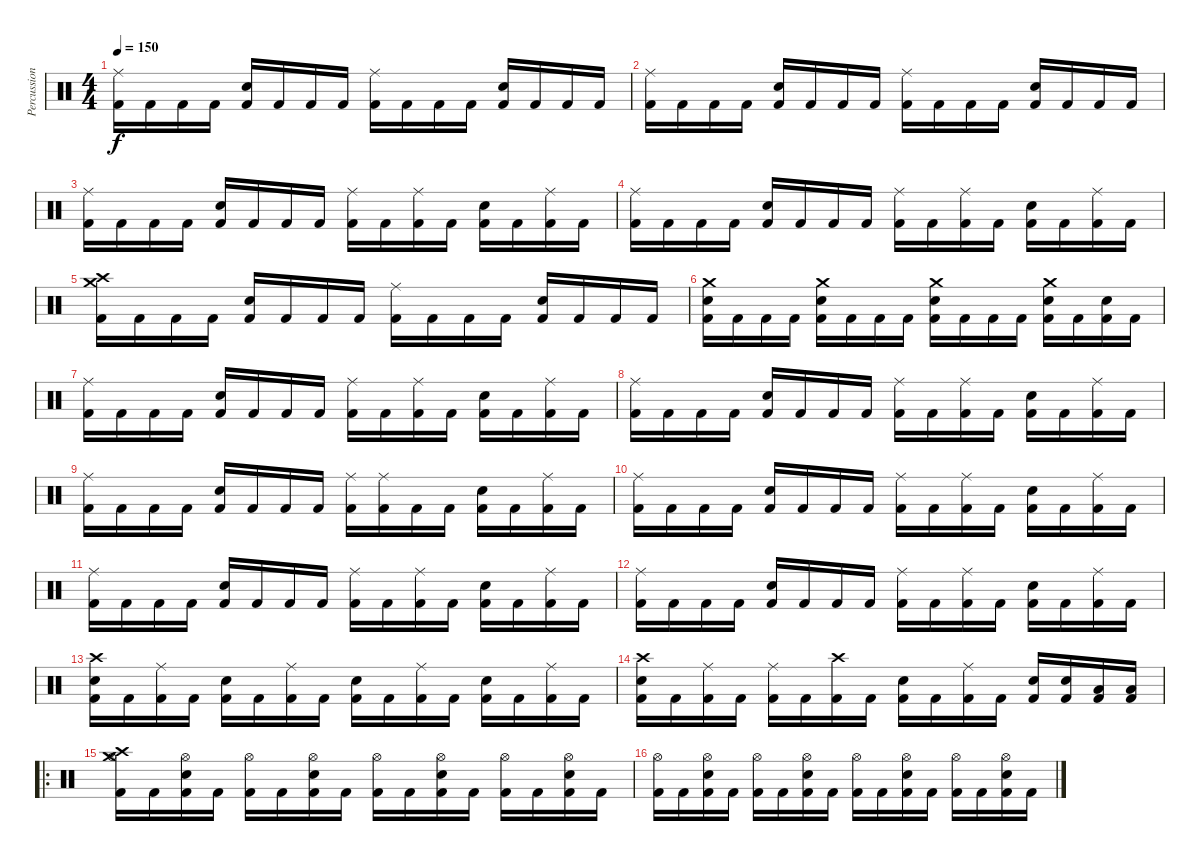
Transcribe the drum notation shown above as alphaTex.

\track ("Percussion" "Percussion") {instrument percussion}
\staff {score}
\articulation defaults
\ts (4 4)
\tempo 150
\clef neutral
\ks c
("Kick (hit) 2" "Ride (middle)").16{dy f} "Kick (hit) 2".16 "Kick (hit) 2".16 "Kick (hit) 2".16 ("Kick (hit) 2" "Electric Snare (hit)").16 "Kick (hit) 2".16 "Kick (hit) 2".16 "Kick (hit) 2".16 ("Kick (hit) 2" "Ride (middle)").16 "Kick (hit) 2".16 "Kick (hit) 2".16 "Kick (hit) 2".16 ("Kick (hit) 2" "Electric Snare (hit)").16 "Kick (hit) 2".16 "Kick (hit) 2".16 "Kick (hit) 2".16 |
("Kick (hit) 2" "Ride (middle)").16 "Kick (hit) 2".16 "Kick (hit) 2".16 "Kick (hit) 2".16 ("Kick (hit) 2" "Electric Snare (hit)").16 "Kick (hit) 2".16 "Kick (hit) 2".16 "Kick (hit) 2".16 ("Kick (hit) 2" "Ride (middle)").16 "Kick (hit) 2".16 "Kick (hit) 2".16 "Kick (hit) 2".16 ("Kick (hit) 2" "Electric Snare (hit)").16 "Kick (hit) 2".16 "Kick (hit) 2".16 "Kick (hit) 2".16 |
("Kick (hit) 2" "Ride (middle)").16 "Kick (hit) 2".16 "Kick (hit) 2".16 "Kick (hit) 2".16 ("Kick (hit) 2" "Electric Snare (hit)").16 "Kick (hit) 2".16 "Kick (hit) 2".16 "Kick (hit) 2".16 ("Kick (hit) 2" "Ride (middle)").16 "Kick (hit) 2".16 ("Kick (hit) 2" "Ride (middle)").16 "Kick (hit) 2".16 ("Kick (hit) 2" "Electric Snare (hit)").16 "Kick (hit) 2".16 ("Kick (hit) 2" "Ride (middle)").16 "Kick (hit) 2".16 |
("Kick (hit) 2" "Ride (middle)").16 "Kick (hit) 2".16 "Kick (hit) 2".16 "Kick (hit) 2".16 ("Kick (hit) 2" "Electric Snare (hit)").16 "Kick (hit) 2".16 "Kick (hit) 2".16 "Kick (hit) 2".16 ("Kick (hit) 2" "Ride (middle)").16 "Kick (hit) 2".16 ("Kick (hit) 2" "Ride (middle)").16 "Kick (hit) 2".16 ("Kick (hit) 2" "Electric Snare (hit)").16 "Kick (hit) 2".16 ("Kick (hit) 2" "Ride (middle)").16 "Kick (hit) 2".16 |
("Kick (hit) 2" "Crash high (hit)" "Crash medium (hit)").16 "Kick (hit) 2".16 "Kick (hit) 2".16 "Kick (hit) 2".16 ("Kick (hit) 2" "Electric Snare (hit)").16 "Kick (hit) 2".16 "Kick (hit) 2".16 "Kick (hit) 2".16 ("Kick (hit) 2" "Ride (middle)").16 "Kick (hit) 2".16 "Kick (hit) 2".16 "Kick (hit) 2".16 ("Kick (hit) 2" "Electric Snare (hit)").16 "Kick (hit) 2".16 "Kick (hit) 2".16 "Kick (hit) 2".16 |
("Kick (hit) 2" "Electric Snare (hit)" "Crash medium (hit)").16 "Kick (hit) 2".16 "Kick (hit) 2".16 "Kick (hit) 2".16 ("Kick (hit) 2" "Electric Snare (hit)" "Crash medium (hit)").16 "Kick (hit) 2".16 "Kick (hit) 2".16 "Kick (hit) 2".16 ("Kick (hit) 2" "Electric Snare (hit)" "Crash medium (hit)").16 "Kick (hit) 2".16 "Kick (hit) 2".16 "Kick (hit) 2".16 ("Kick (hit) 2" "Electric Snare (hit)" "Crash medium (hit)").16 "Kick (hit) 2".16 ("Kick (hit) 2" "Electric Snare (hit)").16 "Kick (hit) 2".16 |
("Kick (hit) 2" "Ride (middle)").16 "Kick (hit) 2".16 "Kick (hit) 2".16 "Kick (hit) 2".16 ("Kick (hit) 2" "Electric Snare (hit)").16 "Kick (hit) 2".16 "Kick (hit) 2".16 "Kick (hit) 2".16 ("Kick (hit) 2" "Ride (middle)").16 "Kick (hit) 2".16 ("Kick (hit) 2" "Ride (middle)").16 "Kick (hit) 2".16 ("Kick (hit) 2" "Electric Snare (hit)").16 "Kick (hit) 2".16 ("Kick (hit) 2" "Ride (middle)").16 "Kick (hit) 2".16 |
("Kick (hit) 2" "Ride (middle)").16 "Kick (hit) 2".16 "Kick (hit) 2".16 "Kick (hit) 2".16 ("Kick (hit) 2" "Electric Snare (hit)").16 "Kick (hit) 2".16 "Kick (hit) 2".16 "Kick (hit) 2".16 ("Kick (hit) 2" "Ride (middle)").16 "Kick (hit) 2".16 ("Kick (hit) 2" "Ride (middle)").16 "Kick (hit) 2".16 ("Kick (hit) 2" "Electric Snare (hit)").16 "Kick (hit) 2".16 ("Kick (hit) 2" "Ride (middle)").16 "Kick (hit) 2".16 |
("Kick (hit) 2" "Ride (middle)").16 "Kick (hit) 2".16 "Kick (hit) 2".16 "Kick (hit) 2".16 ("Kick (hit) 2" "Electric Snare (hit)").16 "Kick (hit) 2".16 "Kick (hit) 2".16 "Kick (hit) 2".16 ("Kick (hit) 2" "Ride (middle)").16 ("Kick (hit) 2" "Ride (middle)").16 "Kick (hit) 2".16 "Kick (hit) 2".16 ("Kick (hit) 2" "Electric Snare (hit)").16 "Kick (hit) 2".16 ("Kick (hit) 2" "Ride (middle)").16 "Kick (hit) 2".16 |
("Kick (hit) 2" "Ride (middle)").16 "Kick (hit) 2".16 "Kick (hit) 2".16 "Kick (hit) 2".16 ("Kick (hit) 2" "Electric Snare (hit)").16 "Kick (hit) 2".16 "Kick (hit) 2".16 "Kick (hit) 2".16 ("Kick (hit) 2" "Ride (middle)").16 "Kick (hit) 2".16 ("Kick (hit) 2" "Ride (middle)").16 "Kick (hit) 2".16 ("Kick (hit) 2" "Electric Snare (hit)").16 "Kick (hit) 2".16 ("Kick (hit) 2" "Ride (middle)").16 "Kick (hit) 2".16 |
("Kick (hit) 2" "Ride (middle)").16 "Kick (hit) 2".16 "Kick (hit) 2".16 "Kick (hit) 2".16 ("Kick (hit) 2" "Electric Snare (hit)").16 "Kick (hit) 2".16 "Kick (hit) 2".16 "Kick (hit) 2".16 ("Kick (hit) 2" "Ride (middle)").16 "Kick (hit) 2".16 ("Kick (hit) 2" "Ride (middle)").16 "Kick (hit) 2".16 ("Kick (hit) 2" "Electric Snare (hit)").16 "Kick (hit) 2".16 ("Kick (hit) 2" "Ride (middle)").16 "Kick (hit) 2".16 |
("Kick (hit) 2" "Ride (middle)").16 "Kick (hit) 2".16 "Kick (hit) 2".16 "Kick (hit) 2".16 ("Kick (hit) 2" "Electric Snare (hit)").16 "Kick (hit) 2".16 "Kick (hit) 2".16 "Kick (hit) 2".16 ("Kick (hit) 2" "Ride (middle)").16 "Kick (hit) 2".16 ("Kick (hit) 2" "Ride (middle)").16 "Kick (hit) 2".16 ("Kick (hit) 2" "Electric Snare (hit)").16 "Kick (hit) 2".16 ("Kick (hit) 2" "Ride (middle)").16 "Kick (hit) 2".16 |
("Kick (hit) 2" "Electric Snare (hit)" "Crash high (hit)").16 "Kick (hit) 2".16 ("Kick (hit) 2" "Ride (middle)").16 "Kick (hit) 2".16 ("Kick (hit) 2" "Electric Snare (hit)").16 "Kick (hit) 2".16 ("Kick (hit) 2" "Ride (middle)").16 "Kick (hit) 2".16 ("Kick (hit) 2" "Electric Snare (hit)").16 "Kick (hit) 2".16 ("Kick (hit) 2" "Ride (middle)").16 "Kick (hit) 2".16 ("Kick (hit) 2" "Electric Snare (hit)").16 "Kick (hit) 2".16 ("Kick (hit) 2" "Ride (middle)").16 "Kick (hit) 2".16 |
("Kick (hit) 2" "Electric Snare (hit)" "Crash high (hit)").16 "Kick (hit) 2".16 ("Kick (hit) 2" "Ride (middle)").16 "Kick (hit) 2".16 ("Kick (hit) 2" "Ride (middle)").16 "Kick (hit) 2".16 ("Kick (hit) 2" "Crash high (hit)").16 "Kick (hit) 2".16 ("Kick (hit) 2" "Electric Snare (hit)").16 "Kick (hit) 2".16 ("Kick (hit) 2" "Ride (middle)").16 "Kick (hit) 2".16 ("Kick (hit) 2" "Electric Snare (hit)").16 ("Kick (hit) 2" "Electric Snare (hit)").16 ("Kick (hit) 2" "Low Tom (hit)").16 ("Kick (hit) 2" "Low Tom (hit)").16 |
\ro
("Kick (hit) 2" "Crash high (hit)" "Crash medium (hit)" "Hi-Hat (open)").16 "Kick (hit) 2".16 ("Kick (hit) 2" "Electric Snare (hit)" "Hi-Hat (open)").16 "Kick (hit) 2".16 ("Kick (hit) 2" "Hi-Hat (open)").16 "Kick (hit) 2".16 ("Kick (hit) 2" "Electric Snare (hit)" "Hi-Hat (open)").16 "Kick (hit) 2".16 ("Kick (hit) 2" "Hi-Hat (open)").16 "Kick (hit) 2".16 ("Kick (hit) 2" "Electric Snare (hit)" "Hi-Hat (open)").16 "Kick (hit) 2".16 ("Kick (hit) 2" "Hi-Hat (open)").16 "Kick (hit) 2".16 ("Kick (hit) 2" "Electric Snare (hit)" "Hi-Hat (open)").16 "Kick (hit) 2".16 |
("Kick (hit) 2" "Hi-Hat (open)").16 "Kick (hit) 2".16 ("Kick (hit) 2" "Electric Snare (hit)" "Hi-Hat (open)").16 "Kick (hit) 2".16 ("Kick (hit) 2" "Hi-Hat (open)").16 "Kick (hit) 2".16 ("Kick (hit) 2" "Electric Snare (hit)" "Hi-Hat (open)").16 "Kick (hit) 2".16 ("Kick (hit) 2" "Hi-Hat (open)").16 "Kick (hit) 2".16 ("Kick (hit) 2" "Electric Snare (hit)" "Hi-Hat (open)").16 "Kick (hit) 2".16 ("Kick (hit) 2" "Hi-Hat (open)").16 "Kick (hit) 2".16 ("Kick (hit) 2" "Electric Snare (hit)" "Hi-Hat (open)").16 "Kick (hit) 2".16
